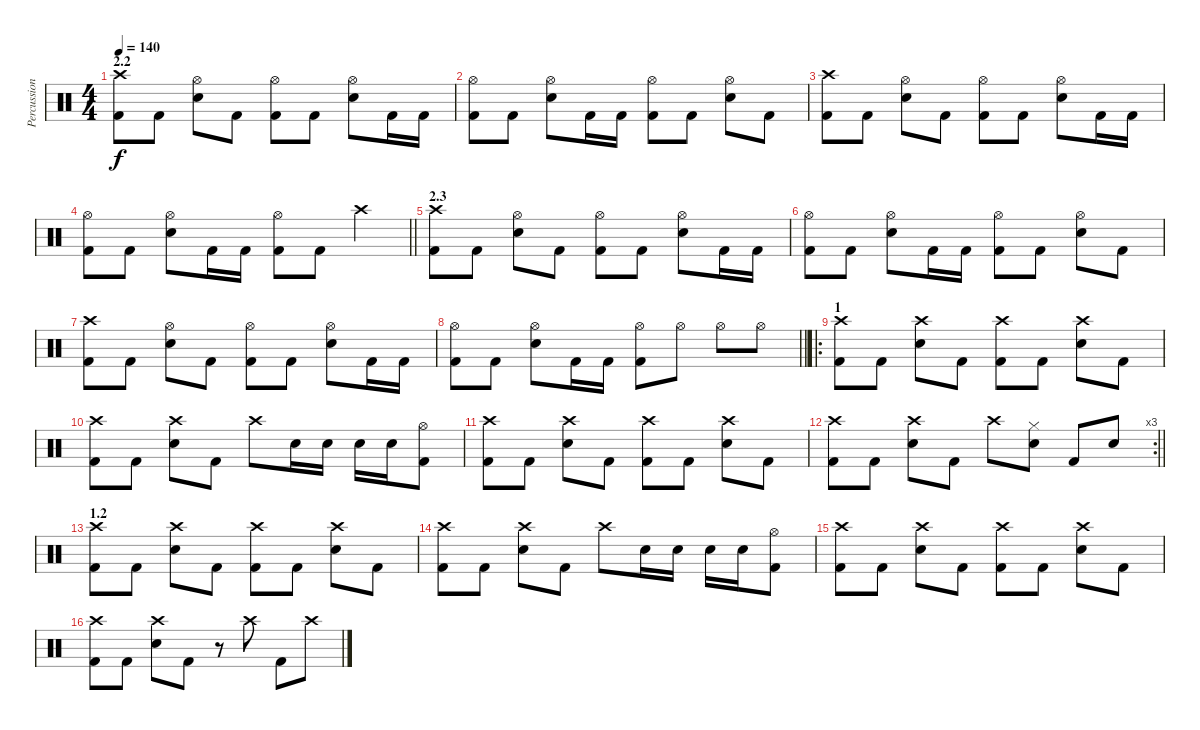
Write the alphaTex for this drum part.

\track ("Percussion" "Percussion") {instrument percussion}
\staff {score}
\articulation defaults
\ts (4 4)
\section ("" "2.2")
\tempo 140
\clef neutral
\ks c
("Kick (hit) 2" "Crash high (hit)").8{dy f} "Kick (hit) 2".8 ("Snare (hit) 2" "Hi-Hat (open)").8 "Kick (hit) 2".8 ("Kick (hit) 2" "Hi-Hat (open)").8 "Kick (hit) 2".8 ("Snare (hit) 2" "Hi-Hat (open)").8 "Kick (hit) 2".16 "Kick (hit) 2".16 |
("Kick (hit) 2" "Hi-Hat (open)").8 "Kick (hit) 2".8 ("Snare (hit) 2" "Hi-Hat (open)").8 "Kick (hit) 2".16 "Kick (hit) 2".16 ("Kick (hit) 2" "Hi-Hat (open)").8 "Kick (hit) 2".8 ("Snare (hit) 2" "Hi-Hat (open)").8 "Kick (hit) 2".8 |
("Kick (hit) 2" "Crash high (hit)").8 "Kick (hit) 2".8 ("Snare (hit) 2" "Hi-Hat (open)").8 "Kick (hit) 2".8 ("Kick (hit) 2" "Hi-Hat (open)").8 "Kick (hit) 2".8 ("Snare (hit) 2" "Hi-Hat (open)").8 "Kick (hit) 2".16 "Kick (hit) 2".16 |
\barLineRight lightlight
("Kick (hit) 2" "Hi-Hat (open)").8 "Kick (hit) 2".8 ("Snare (hit) 2" "Hi-Hat (open)").8 "Kick (hit) 2".16 "Kick (hit) 2".16 ("Kick (hit) 2" "Hi-Hat (open)").8 "Kick (hit) 2".8 "Crash high (hit)".4 |
\section ("" "2.3")
("Kick (hit) 2" "Crash high (hit)").8 "Kick (hit) 2".8 ("Snare (hit) 2" "Hi-Hat (open)").8 "Kick (hit) 2".8 ("Kick (hit) 2" "Hi-Hat (open)").8 "Kick (hit) 2".8 ("Snare (hit) 2" "Hi-Hat (open)").8 "Kick (hit) 2".16 "Kick (hit) 2".16 |
("Kick (hit) 2" "Hi-Hat (open)").8 "Kick (hit) 2".8 ("Snare (hit) 2" "Hi-Hat (open)").8 "Kick (hit) 2".16 "Kick (hit) 2".16 ("Kick (hit) 2" "Hi-Hat (open)").8 "Kick (hit) 2".8 ("Snare (hit) 2" "Hi-Hat (open)").8 "Kick (hit) 2".8 |
("Kick (hit) 2" "Crash high (hit)").8 "Kick (hit) 2".8 ("Snare (hit) 2" "Hi-Hat (open)").8 "Kick (hit) 2".8 ("Kick (hit) 2" "Hi-Hat (open)").8 "Kick (hit) 2".8 ("Snare (hit) 2" "Hi-Hat (open)").8 "Kick (hit) 2".16 "Kick (hit) 2".16 |
\barLineRight lightlight
("Kick (hit) 2" "Hi-Hat (open)").8 "Kick (hit) 2".8 ("Snare (hit) 2" "Hi-Hat (open)").8 "Kick (hit) 2".16 "Kick (hit) 2".16 ("Kick (hit) 2" "Hi-Hat (open)").8 "Hi-Hat (open)".8 "Hi-Hat (open)".8 "Hi-Hat (open)".8 |
\ro
\section ("" "1")
("Kick (hit) 2" "Crash high (hit)").8 "Kick (hit) 2".8 ("Snare (hit) 2" "Crash high (hit)").8 "Kick (hit) 2".8 ("Kick (hit) 2" "Crash high (hit)").8 "Kick (hit) 2".8 ("Snare (hit) 2" "Crash high (hit)").8 "Kick (hit) 2".8 |
("Kick (hit) 2" "Crash high (hit)").8 "Kick (hit) 2".8 ("Snare (hit) 2" "Crash high (hit)").8 "Kick (hit) 2".8 "Crash high (hit)".8 "Snare (hit) 2".16 "Snare (hit) 2".16 "Snare (hit) 2".16 "Snare (hit) 2".16 ("Kick (hit) 2" "Hi-Hat (open)").8 |
("Kick (hit) 2" "Crash high (hit)").8 "Kick (hit) 2".8 ("Snare (hit) 2" "Crash high (hit)").8 "Kick (hit) 2".8 ("Kick (hit) 2" "Crash high (hit)").8 "Kick (hit) 2".8 ("Snare (hit) 2" "Crash high (hit)").8 "Kick (hit) 2".8 |
\rc 3
\barLineRight lightlight
("Kick (hit) 2" "Crash high (hit)").8 "Kick (hit) 2".8 ("Snare (hit) 2" "Crash high (hit)").8 "Kick (hit) 2".8 "Crash high (hit)".8 ("Snare (hit) 2" "Hi-Hat (closed)").8 "Kick (hit) 2".8 "Snare (hit) 2".8 |
\section ("" "1.2")
("Kick (hit) 2" "Crash high (hit)").8 "Kick (hit) 2".8 ("Snare (hit) 2" "Crash high (hit)").8 "Kick (hit) 2".8 ("Kick (hit) 2" "Crash high (hit)").8 "Kick (hit) 2".8 ("Snare (hit) 2" "Crash high (hit)").8 "Kick (hit) 2".8 |
("Kick (hit) 2" "Crash high (hit)").8 "Kick (hit) 2".8 ("Snare (hit) 2" "Crash high (hit)").8 "Kick (hit) 2".8 "Crash high (hit)".8 "Snare (hit) 2".16 "Snare (hit) 2".16 "Snare (hit) 2".16 "Snare (hit) 2".16 ("Kick (hit) 2" "Hi-Hat (open)").8 |
("Kick (hit) 2" "Crash high (hit)").8 "Kick (hit) 2".8 ("Snare (hit) 2" "Crash high (hit)").8 "Kick (hit) 2".8 ("Kick (hit) 2" "Crash high (hit)").8 "Kick (hit) 2".8 ("Snare (hit) 2" "Crash high (hit)").8 "Kick (hit) 2".8 |
("Kick (hit) 2" "Crash high (hit)").8 "Kick (hit) 2".8 ("Snare (hit) 2" "Crash high (hit)").8 "Kick (hit) 2".8 r.8 "Crash high (hit)".8 "Kick (hit) 2".8 "Crash high (hit)".8
